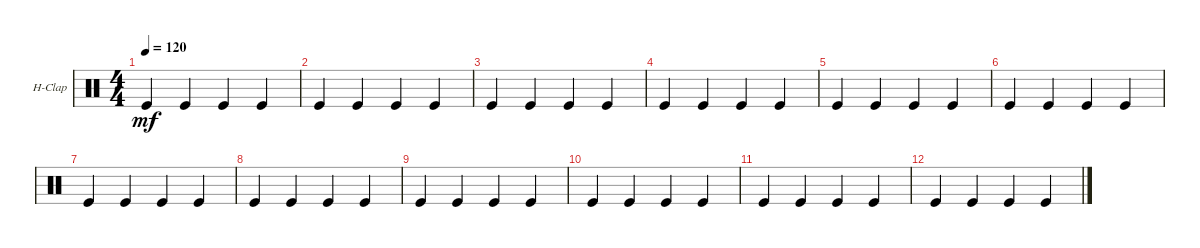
\bracketExtendMode groupsimilarinstruments
\firstSystemTrackNameOrientation horizontal
\otherSystemsTrackNameOrientation horizontal
\track ("Hand Clap" "H-Clap") {instrument percussion}
\staff {score}
\articulation defaults
\ts (4 4)
\tempo 120
\clef neutral
\ks c "Kick (hit)".4{dy mf} "Kick (hit)".4 "Kick (hit)".4 "Kick (hit)".4
|
"Kick (hit)".4 "Kick (hit)".4 "Kick (hit)".4 "Kick (hit)".4 |
"Kick (hit)".4 "Kick (hit)".4 "Kick (hit)".4 "Kick (hit)".4 |
"Kick (hit)".4 "Kick (hit)".4 "Kick (hit)".4 "Kick (hit)".4 |
"Kick (hit)".4 "Kick (hit)".4 "Kick (hit)".4 "Kick (hit)".4 |
"Kick (hit)".4 "Kick (hit)".4 "Kick (hit)".4 "Kick (hit)".4 |
"Kick (hit)".4 "Kick (hit)".4 "Kick (hit)".4 "Kick (hit)".4 |
"Kick (hit)".4 "Kick (hit)".4 "Kick (hit)".4 "Kick (hit)".4 |
"Kick (hit)".4 "Kick (hit)".4 "Kick (hit)".4 "Kick (hit)".4 |
"Kick (hit)".4 "Kick (hit)".4 "Kick (hit)".4 "Kick (hit)".4 |
"Kick (hit)".4 "Kick (hit)".4 "Kick (hit)".4 "Kick (hit)".4 |
"Kick (hit)".4 "Kick (hit)".4 "Kick (hit)".4 "Kick (hit)".4
